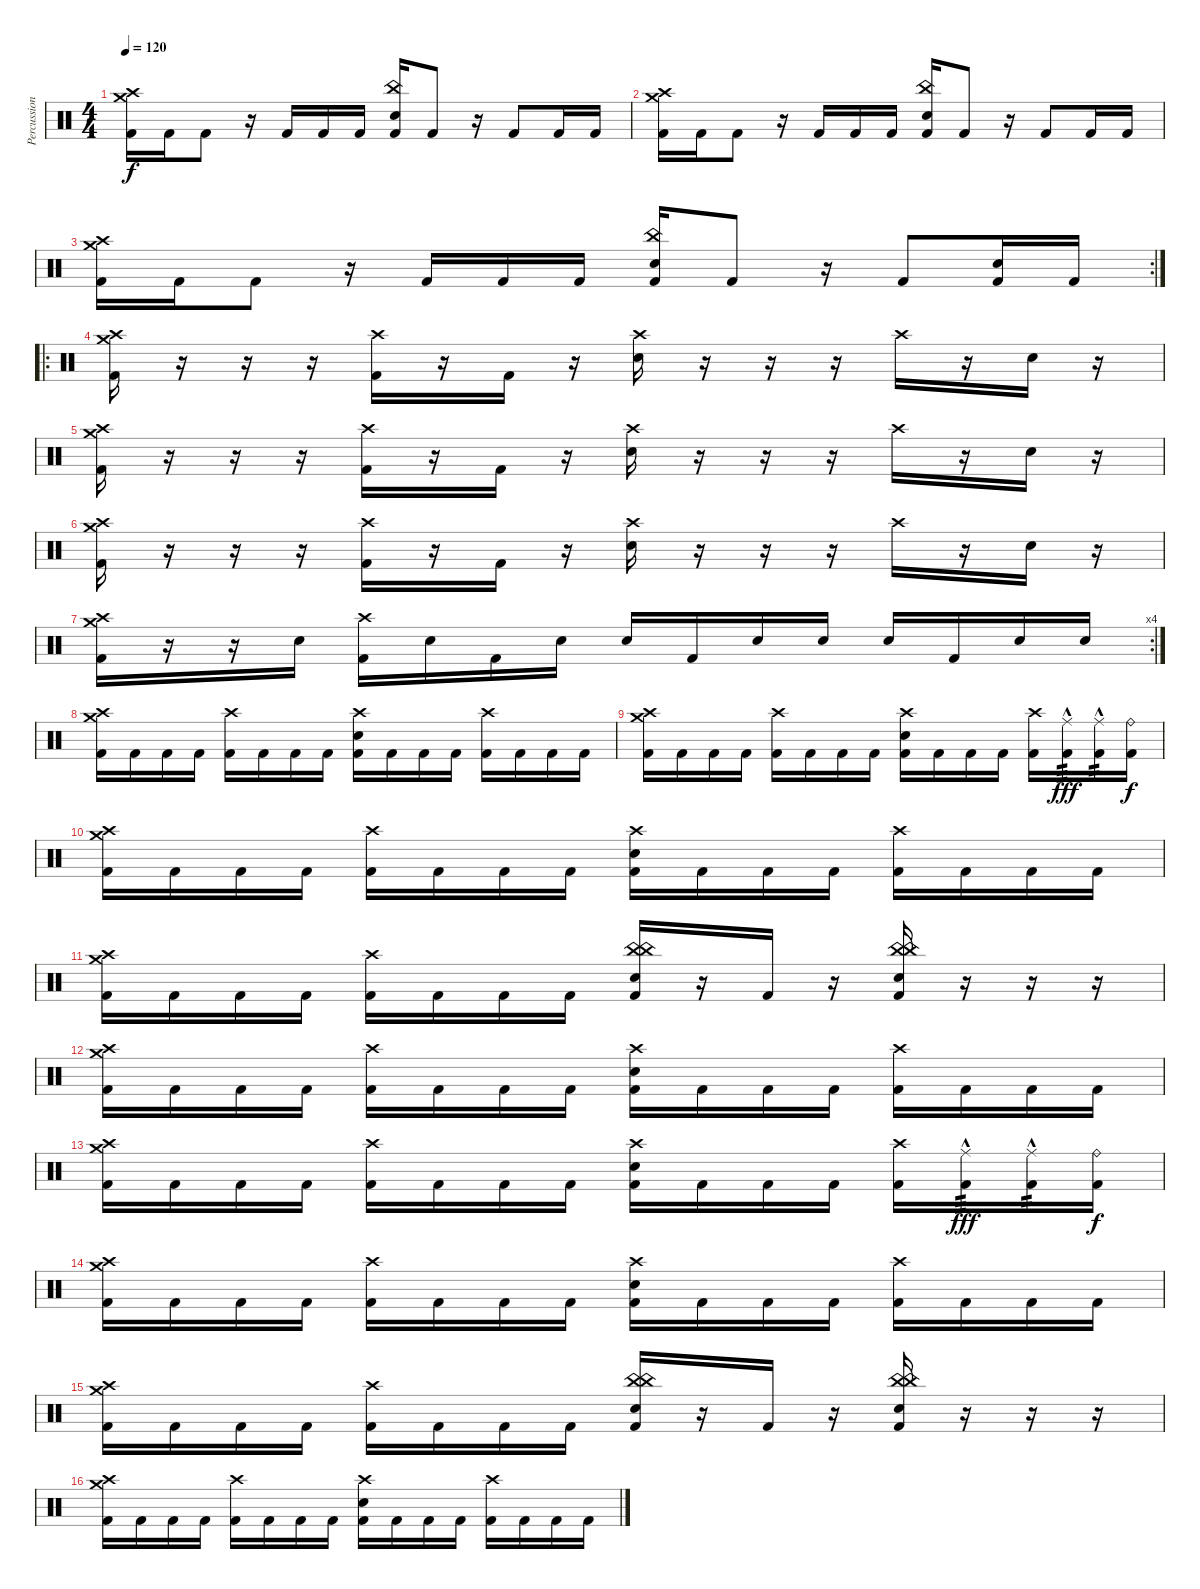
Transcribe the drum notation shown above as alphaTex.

\track ("Percussion" "Percussion") {instrument percussion bank 177}
\staff
\articulation defaults
\ts (4 4)
\tempo 120
\clef neutral
\ks c
("Crash medium (hit)" "Crash high (hit)" "Kick (hit) 2").16{dy f} "Kick (hit) 2".16 "Kick (hit) 2".8 r.16 "Kick (hit) 2".16 "Kick (hit) 2".16 "Kick (hit) 2".16 ("China (hit)" "Electric Snare (hit)" "Kick (hit) 2").16 "Kick (hit) 2".8 r.16 "Kick (hit) 2".8 "Kick (hit) 2".16 "Kick (hit) 2".16 |
("Crash medium (hit)" "Crash high (hit)" "Kick (hit) 2").16 "Kick (hit) 2".16 "Kick (hit) 2".8 r.16 "Kick (hit) 2".16 "Kick (hit) 2".16 "Kick (hit) 2".16 ("China (hit)" "Electric Snare (hit)" "Kick (hit) 2").16 "Kick (hit) 2".8 r.16 "Kick (hit) 2".8 "Kick (hit) 2".16 "Kick (hit) 2".16 |
\rc 2
("Crash medium (hit)" "Crash high (hit)" "Kick (hit) 2").16 "Kick (hit) 2".16 "Kick (hit) 2".8 r.16 "Kick (hit) 2".16 "Kick (hit) 2".16 "Kick (hit) 2".16 ("China (hit)" "Electric Snare (hit)" "Kick (hit) 2").16 "Kick (hit) 2".8 r.16 "Kick (hit) 2".8 ("Electric Snare (hit)" "Kick (hit) 2").16 "Kick (hit) 2".16 |
\ro
("Crash medium (hit)" "Crash high (hit)" "Kick (hit) 2").16 r.16 r.16 r.16 ("Crash high (hit)" "Kick (hit) 2").16 r.16 "Kick (hit) 2".16 r.16 ("Crash high (hit)" "Electric Snare (hit)").16 r.16 r.16 r.16 "Crash high (hit)".16 r.16 "Electric Snare (hit)".16 r.16 |
("Crash medium (hit)" "Crash high (hit)" "Kick (hit) 2").16 r.16 r.16 r.16 ("Crash high (hit)" "Kick (hit) 2").16 r.16 "Kick (hit) 2".16 r.16 ("Crash high (hit)" "Electric Snare (hit)").16 r.16 r.16 r.16 "Crash high (hit)".16 r.16 "Electric Snare (hit)".16 r.16 |
("Crash medium (hit)" "Crash high (hit)" "Kick (hit) 2").16 r.16 r.16 r.16 ("Crash high (hit)" "Kick (hit) 2").16 r.16 "Kick (hit) 2".16 r.16 ("Crash high (hit)" "Electric Snare (hit)").16 r.16 r.16 r.16 "Crash high (hit)".16 r.16 "Electric Snare (hit)".16 r.16 |
\rc 4
("Crash medium (hit)" "Crash high (hit)" "Kick (hit) 2").16 r.16 r.16 "Electric Snare (hit)".16 ("Crash high (hit)" "Kick (hit) 2").16 "Electric Snare (hit)".16 "Kick (hit) 2".16 "Electric Snare (hit)".16 "Electric Snare (hit)".16 "Kick (hit) 2".16 "Electric Snare (hit)".16 "Electric Snare (hit)".16 "Electric Snare (hit)".16 "Kick (hit) 2".16 "Electric Snare (hit)".16 "Electric Snare (hit)".16 |
("Crash medium (hit)" "Crash high (hit)" "Kick (hit) 2").16 "Kick (hit) 2".16 "Kick (hit) 2".16 "Kick (hit) 2".16 ("Crash high (hit)" "Kick (hit) 2").16 "Kick (hit) 2".16 "Kick (hit) 2".16 "Kick (hit) 2".16 ("Crash high (hit)" "Electric Snare (hit)" "Kick (hit) 2").16 "Kick (hit) 2".16 "Kick (hit) 2".16 "Kick (hit) 2".16 ("Crash high (hit)" "Kick (hit) 2").16 "Kick (hit) 2".16 "Kick (hit) 2".16 "Kick (hit) 2".16 |
("Crash medium (hit)" "Crash high (hit)" "Kick (hit) 2").16 "Kick (hit) 2".16 "Kick (hit) 2".16 "Kick (hit) 2".16 ("Crash high (hit)" "Kick (hit) 2").16 "Kick (hit) 2".16 "Kick (hit) 2".16 "Kick (hit) 2".16 ("Crash high (hit)" "Electric Snare (hit)" "Kick (hit) 2").16 "Kick (hit) 2".16 "Kick (hit) 2".16 "Kick (hit) 2".16 ("Crash high (hit)" "Kick (hit) 2").16 ("Ride (middle)"{hac} "Kick (hit) 2").16{tp 3 dy fff} ("Ride (middle)"{hac} "Kick (hit) 2").16{tp 2} ("Ride (bell)" "Kick (hit) 2").16{dy f} |
("Crash medium (hit)" "Crash high (hit)" "Kick (hit) 2").16 "Kick (hit) 2".16 "Kick (hit) 2".16 "Kick (hit) 2".16 ("Crash high (hit)" "Kick (hit) 2").16 "Kick (hit) 2".16 "Kick (hit) 2".16 "Kick (hit) 2".16 ("Crash high (hit)" "Electric Snare (hit)" "Kick (hit) 2").16 "Kick (hit) 2".16 "Kick (hit) 2".16 "Kick (hit) 2".16 ("Crash high (hit)" "Kick (hit) 2").16 "Kick (hit) 2".16 "Kick (hit) 2".16 "Kick (hit) 2".16 |
("Crash medium (hit)" "Crash high (hit)" "Kick (hit) 2").16 "Kick (hit) 2".16 "Kick (hit) 2".16 "Kick (hit) 2".16 ("Crash high (hit)" "Kick (hit) 2").16 "Kick (hit) 2".16 "Kick (hit) 2".16 "Kick (hit) 2".16 ("China (hit)" "China (hit)" "Electric Snare (hit)" "Kick (hit) 2").16 r.16 "Kick (hit) 2".16 r.16 ("China (hit)" "China (hit)" "Electric Snare (hit)" "Kick (hit) 2").16 r.16 r.16 r.16 |
("Crash medium (hit)" "Crash high (hit)" "Kick (hit) 2").16 "Kick (hit) 2".16 "Kick (hit) 2".16 "Kick (hit) 2".16 ("Crash high (hit)" "Kick (hit) 2").16 "Kick (hit) 2".16 "Kick (hit) 2".16 "Kick (hit) 2".16 ("Crash high (hit)" "Electric Snare (hit)" "Kick (hit) 2").16 "Kick (hit) 2".16 "Kick (hit) 2".16 "Kick (hit) 2".16 ("Crash high (hit)" "Kick (hit) 2").16 "Kick (hit) 2".16 "Kick (hit) 2".16 "Kick (hit) 2".16 |
("Crash medium (hit)" "Crash high (hit)" "Kick (hit) 2").16 "Kick (hit) 2".16 "Kick (hit) 2".16 "Kick (hit) 2".16 ("Crash high (hit)" "Kick (hit) 2").16 "Kick (hit) 2".16 "Kick (hit) 2".16 "Kick (hit) 2".16 ("Crash high (hit)" "Electric Snare (hit)" "Kick (hit) 2").16 "Kick (hit) 2".16 "Kick (hit) 2".16 "Kick (hit) 2".16 ("Crash high (hit)" "Kick (hit) 2").16 ("Ride (middle)"{hac} "Kick (hit) 2").16{tp 3 dy fff} ("Ride (middle)"{hac} "Kick (hit) 2").16{tp 2} ("Ride (bell)" "Kick (hit) 2").16{dy f} |
("Crash medium (hit)" "Crash high (hit)" "Kick (hit) 2").16 "Kick (hit) 2".16 "Kick (hit) 2".16 "Kick (hit) 2".16 ("Crash high (hit)" "Kick (hit) 2").16 "Kick (hit) 2".16 "Kick (hit) 2".16 "Kick (hit) 2".16 ("Crash high (hit)" "Electric Snare (hit)" "Kick (hit) 2").16 "Kick (hit) 2".16 "Kick (hit) 2".16 "Kick (hit) 2".16 ("Crash high (hit)" "Kick (hit) 2").16 "Kick (hit) 2".16 "Kick (hit) 2".16 "Kick (hit) 2".16 |
("Crash medium (hit)" "Crash high (hit)" "Kick (hit) 2").16 "Kick (hit) 2".16 "Kick (hit) 2".16 "Kick (hit) 2".16 ("Crash high (hit)" "Kick (hit) 2").16 "Kick (hit) 2".16 "Kick (hit) 2".16 "Kick (hit) 2".16 ("China (hit)" "China (hit)" "Electric Snare (hit)" "Kick (hit) 2").16 r.16 "Kick (hit) 2".16 r.16 ("China (hit)" "China (hit)" "Electric Snare (hit)" "Kick (hit) 2").16 r.16 r.16 r.16 |
("Crash medium (hit)" "Crash high (hit)" "Kick (hit) 2").16 "Kick (hit) 2".16 "Kick (hit) 2".16 "Kick (hit) 2".16 ("Crash high (hit)" "Kick (hit) 2").16 "Kick (hit) 2".16 "Kick (hit) 2".16 "Kick (hit) 2".16 ("Crash high (hit)" "Electric Snare (hit)" "Kick (hit) 2").16 "Kick (hit) 2".16 "Kick (hit) 2".16 "Kick (hit) 2".16 ("Crash high (hit)" "Kick (hit) 2").16 "Kick (hit) 2".16 "Kick (hit) 2".16 "Kick (hit) 2".16
